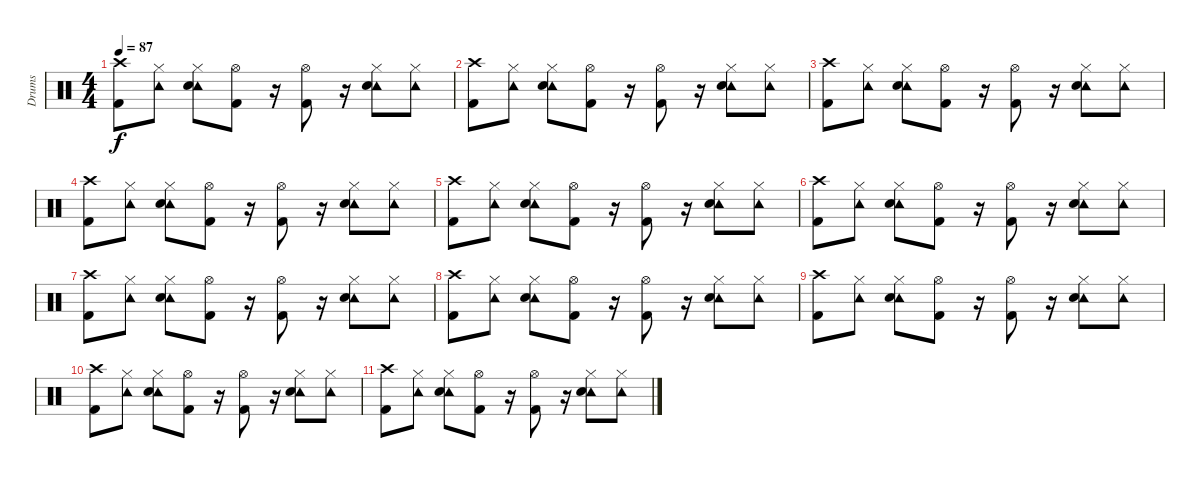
\track ("Drums" "Drums") {instrument percussion}
\staff {score}
\articulation defaults
\ts (4 4)
\tempo 87
\clef neutral
\ks c
("Crash high (hit)" "Kick (hit) 2").8{dy f} ("Tambourine (hit)" "Hi-Hat (closed)").8 ("Tambourine (hit)" "Hi-Hat (closed)" "Snare (hit) 2").8 ("Hi-Hat (open)" "Kick (hit) 2").8 r.16 ("Hi-Hat (open)" "Kick (hit) 2").8 r.16 ("Tambourine (hit)" "Hi-Hat (closed)" "Snare (hit) 2").8 ("Tambourine (hit)" "Hi-Hat (closed)").8 |
("Crash high (hit)" "Kick (hit) 2").8{volume 8} ("Tambourine (hit)" "Hi-Hat (closed)").8 ("Tambourine (hit)" "Hi-Hat (closed)" "Snare (hit) 2").8 ("Hi-Hat (open)" "Kick (hit) 2").8 r.16 ("Hi-Hat (open)" "Kick (hit) 2").8 r.16 ("Tambourine (hit)" "Hi-Hat (closed)" "Snare (hit) 2").8 ("Tambourine (hit)" "Hi-Hat (closed)").8 |
("Crash high (hit)" "Kick (hit) 2").8 ("Tambourine (hit)" "Hi-Hat (closed)").8 ("Tambourine (hit)" "Hi-Hat (closed)" "Snare (hit) 2").8 ("Hi-Hat (open)" "Kick (hit) 2").8 r.16 ("Hi-Hat (open)" "Kick (hit) 2").8 r.16 ("Tambourine (hit)" "Hi-Hat (closed)" "Snare (hit) 2").8 ("Tambourine (hit)" "Hi-Hat (closed)").8 |
("Crash high (hit)" "Kick (hit) 2").8{volume 6} ("Tambourine (hit)" "Hi-Hat (closed)").8 ("Tambourine (hit)" "Hi-Hat (closed)" "Snare (hit) 2").8 ("Hi-Hat (open)" "Kick (hit) 2").8 r.16 ("Hi-Hat (open)" "Kick (hit) 2").8 r.16 ("Tambourine (hit)" "Hi-Hat (closed)" "Snare (hit) 2").8 ("Tambourine (hit)" "Hi-Hat (closed)").8 |
("Crash high (hit)" "Kick (hit) 2").8 ("Tambourine (hit)" "Hi-Hat (closed)").8 ("Tambourine (hit)" "Hi-Hat (closed)" "Snare (hit) 2").8 ("Hi-Hat (open)" "Kick (hit) 2").8 r.16 ("Hi-Hat (open)" "Kick (hit) 2").8 r.16 ("Tambourine (hit)" "Hi-Hat (closed)" "Snare (hit) 2").8 ("Tambourine (hit)" "Hi-Hat (closed)").8 |
("Crash high (hit)" "Kick (hit) 2").8{volume 4} ("Tambourine (hit)" "Hi-Hat (closed)").8 ("Tambourine (hit)" "Hi-Hat (closed)" "Snare (hit) 2").8 ("Hi-Hat (open)" "Kick (hit) 2").8 r.16 ("Hi-Hat (open)" "Kick (hit) 2").8 r.16 ("Tambourine (hit)" "Hi-Hat (closed)" "Snare (hit) 2").8 ("Tambourine (hit)" "Hi-Hat (closed)").8 |
("Crash high (hit)" "Kick (hit) 2").8 ("Tambourine (hit)" "Hi-Hat (closed)").8 ("Tambourine (hit)" "Hi-Hat (closed)" "Snare (hit) 2").8 ("Hi-Hat (open)" "Kick (hit) 2").8 r.16 ("Hi-Hat (open)" "Kick (hit) 2").8 r.16 ("Tambourine (hit)" "Hi-Hat (closed)" "Snare (hit) 2").8 ("Tambourine (hit)" "Hi-Hat (closed)").8 |
("Crash high (hit)" "Kick (hit) 2").8{volume 2} ("Tambourine (hit)" "Hi-Hat (closed)").8 ("Tambourine (hit)" "Hi-Hat (closed)" "Snare (hit) 2").8 ("Hi-Hat (open)" "Kick (hit) 2").8 r.16 ("Hi-Hat (open)" "Kick (hit) 2").8 r.16 ("Tambourine (hit)" "Hi-Hat (closed)" "Snare (hit) 2").8 ("Tambourine (hit)" "Hi-Hat (closed)").8 |
("Crash high (hit)" "Kick (hit) 2").8 ("Tambourine (hit)" "Hi-Hat (closed)").8 ("Tambourine (hit)" "Hi-Hat (closed)" "Snare (hit) 2").8 ("Hi-Hat (open)" "Kick (hit) 2").8 r.16 ("Hi-Hat (open)" "Kick (hit) 2").8 r.16 ("Tambourine (hit)" "Hi-Hat (closed)" "Snare (hit) 2").8 ("Tambourine (hit)" "Hi-Hat (closed)").8 |
("Crash high (hit)" "Kick (hit) 2").8{volume 0} ("Tambourine (hit)" "Hi-Hat (closed)").8 ("Tambourine (hit)" "Hi-Hat (closed)" "Snare (hit) 2").8 ("Hi-Hat (open)" "Kick (hit) 2").8 r.16 ("Hi-Hat (open)" "Kick (hit) 2").8 r.16 ("Tambourine (hit)" "Hi-Hat (closed)" "Snare (hit) 2").8 ("Tambourine (hit)" "Hi-Hat (closed)").8 |
("Crash high (hit)" "Kick (hit) 2").8 ("Tambourine (hit)" "Hi-Hat (closed)").8 ("Tambourine (hit)" "Hi-Hat (closed)" "Snare (hit) 2").8 ("Hi-Hat (open)" "Kick (hit) 2").8 r.16 ("Hi-Hat (open)" "Kick (hit) 2").8 r.16 ("Tambourine (hit)" "Hi-Hat (closed)" "Snare (hit) 2").8 ("Tambourine (hit)" "Hi-Hat (closed)").8
